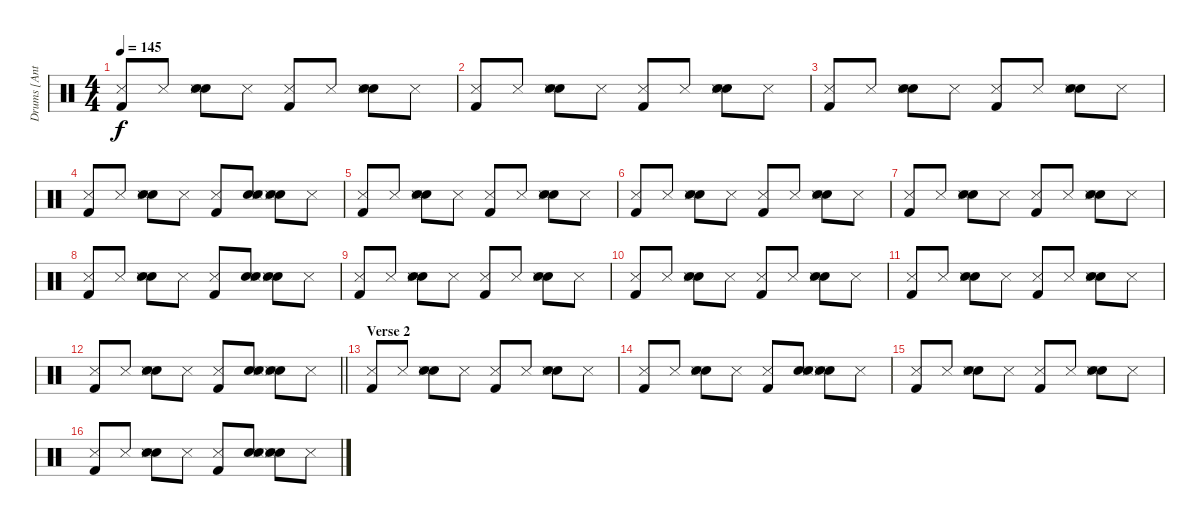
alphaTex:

\track ("Drums [Anthony Improgo]" "Drums [Ant") {instrument percussion}
\staff {score}
\articulation defaults
\ts (4 4)
\tempo 145
\clef neutral
\ks c
("Snare (side stick) 3" "Kick (hit) 2").8{dy f} "Snare (side stick) 3".8 ("Hand Clap (hit)" "Snare (hit) 2" "Snare (side stick) 3").8 "Snare (side stick) 3".8 ("Snare (side stick) 3" "Kick (hit) 2").8 "Snare (side stick) 3".8 ("Hand Clap (hit)" "Snare (hit) 2" "Snare (side stick) 3").8 "Snare (side stick) 3".8 |
("Snare (side stick) 3" "Kick (hit) 2").8 "Snare (side stick) 3".8 ("Hand Clap (hit)" "Snare (hit) 2" "Snare (side stick) 3").8 "Snare (side stick) 3".8 ("Snare (side stick) 3" "Kick (hit) 2").8 "Snare (side stick) 3".8 ("Hand Clap (hit)" "Snare (hit) 2" "Snare (side stick) 3").8 "Snare (side stick) 3".8 |
("Snare (side stick) 3" "Kick (hit) 2").8 "Snare (side stick) 3".8 ("Hand Clap (hit)" "Snare (hit) 2" "Snare (side stick) 3").8 "Snare (side stick) 3".8 ("Snare (side stick) 3" "Kick (hit) 2").8 "Snare (side stick) 3".8 ("Hand Clap (hit)" "Snare (hit) 2" "Snare (side stick) 3").8 "Snare (side stick) 3".8 |
("Snare (side stick) 3" "Kick (hit) 2").8 "Snare (side stick) 3".8 ("Hand Clap (hit)" "Snare (hit) 2" "Snare (side stick) 3").8 "Snare (side stick) 3".8 ("Snare (side stick) 3" "Kick (hit) 2").8 ("Hand Clap (hit)" "Snare (hit) 2" "Snare (side stick) 3").8 ("Hand Clap (hit)" "Snare (hit) 2" "Snare (side stick) 3").8 "Snare (side stick) 3".8 |
("Snare (side stick) 3" "Kick (hit) 2").8 "Snare (side stick) 3".8 ("Hand Clap (hit)" "Snare (hit) 2" "Snare (side stick) 3").8 "Snare (side stick) 3".8 ("Snare (side stick) 3" "Kick (hit) 2").8 "Snare (side stick) 3".8 ("Hand Clap (hit)" "Snare (hit) 2" "Snare (side stick) 3").8 "Snare (side stick) 3".8 |
("Snare (side stick) 3" "Kick (hit) 2").8 "Snare (side stick) 3".8 ("Hand Clap (hit)" "Snare (hit) 2" "Snare (side stick) 3").8 "Snare (side stick) 3".8 ("Snare (side stick) 3" "Kick (hit) 2").8 "Snare (side stick) 3".8 ("Hand Clap (hit)" "Snare (hit) 2" "Snare (side stick) 3").8 "Snare (side stick) 3".8 |
("Snare (side stick) 3" "Kick (hit) 2").8 "Snare (side stick) 3".8 ("Hand Clap (hit)" "Snare (hit) 2" "Snare (side stick) 3").8 "Snare (side stick) 3".8 ("Snare (side stick) 3" "Kick (hit) 2").8 "Snare (side stick) 3".8 ("Hand Clap (hit)" "Snare (hit) 2" "Snare (side stick) 3").8 "Snare (side stick) 3".8 |
("Snare (side stick) 3" "Kick (hit) 2").8 "Snare (side stick) 3".8 ("Hand Clap (hit)" "Snare (hit) 2" "Snare (side stick) 3").8 "Snare (side stick) 3".8 ("Snare (side stick) 3" "Kick (hit) 2").8 ("Hand Clap (hit)" "Snare (hit) 2" "Snare (side stick) 3").8 ("Hand Clap (hit)" "Snare (hit) 2" "Snare (side stick) 3").8 "Snare (side stick) 3".8 |
("Snare (side stick) 3" "Kick (hit) 2").8 "Snare (side stick) 3".8 ("Hand Clap (hit)" "Snare (hit) 2" "Snare (side stick) 3").8 "Snare (side stick) 3".8 ("Snare (side stick) 3" "Kick (hit) 2").8 "Snare (side stick) 3".8 ("Hand Clap (hit)" "Snare (hit) 2" "Snare (side stick) 3").8 "Snare (side stick) 3".8 |
("Snare (side stick) 3" "Kick (hit) 2").8 "Snare (side stick) 3".8 ("Hand Clap (hit)" "Snare (hit) 2" "Snare (side stick) 3").8 "Snare (side stick) 3".8 ("Snare (side stick) 3" "Kick (hit) 2").8 "Snare (side stick) 3".8 ("Hand Clap (hit)" "Snare (hit) 2" "Snare (side stick) 3").8 "Snare (side stick) 3".8 |
("Snare (side stick) 3" "Kick (hit) 2").8 "Snare (side stick) 3".8 ("Hand Clap (hit)" "Snare (hit) 2" "Snare (side stick) 3").8 "Snare (side stick) 3".8 ("Snare (side stick) 3" "Kick (hit) 2").8 "Snare (side stick) 3".8 ("Hand Clap (hit)" "Snare (hit) 2" "Snare (side stick) 3").8 "Snare (side stick) 3".8 |
\barLineRight lightlight
("Snare (side stick) 3" "Kick (hit) 2").8 "Snare (side stick) 3".8 ("Hand Clap (hit)" "Snare (hit) 2" "Snare (side stick) 3").8 "Snare (side stick) 3".8 ("Snare (side stick) 3" "Kick (hit) 2").8 ("Hand Clap (hit)" "Snare (hit) 2" "Snare (side stick) 3").8 ("Hand Clap (hit)" "Snare (hit) 2" "Snare (side stick) 3").8 "Snare (side stick) 3".8 |
\section ("" "Verse 2")
("Snare (side stick) 3" "Kick (hit) 2").8 "Snare (side stick) 3".8 ("Hand Clap (hit)" "Snare (hit) 2" "Snare (side stick) 3").8 "Snare (side stick) 3".8 ("Snare (side stick) 3" "Kick (hit) 2").8 "Snare (side stick) 3".8 ("Hand Clap (hit)" "Snare (hit) 2" "Snare (side stick) 3").8 "Snare (side stick) 3".8 |
("Snare (side stick) 3" "Kick (hit) 2").8 "Snare (side stick) 3".8 ("Hand Clap (hit)" "Snare (hit) 2" "Snare (side stick) 3").8 "Snare (side stick) 3".8 ("Snare (side stick) 3" "Kick (hit) 2").8 ("Hand Clap (hit)" "Snare (hit) 2" "Snare (side stick) 3").8 ("Hand Clap (hit)" "Snare (hit) 2" "Snare (side stick) 3").8 "Snare (side stick) 3".8 |
("Snare (side stick) 3" "Kick (hit) 2").8 "Snare (side stick) 3".8 ("Hand Clap (hit)" "Snare (hit) 2" "Snare (side stick) 3").8 "Snare (side stick) 3".8 ("Snare (side stick) 3" "Kick (hit) 2").8 "Snare (side stick) 3".8 ("Hand Clap (hit)" "Snare (hit) 2" "Snare (side stick) 3").8 "Snare (side stick) 3".8 |
("Snare (side stick) 3" "Kick (hit) 2").8 "Snare (side stick) 3".8 ("Hand Clap (hit)" "Snare (hit) 2" "Snare (side stick) 3").8 "Snare (side stick) 3".8 ("Snare (side stick) 3" "Kick (hit) 2").8 ("Hand Clap (hit)" "Snare (hit) 2" "Snare (side stick) 3").8 ("Hand Clap (hit)" "Snare (hit) 2" "Snare (side stick) 3").8 "Snare (side stick) 3".8
